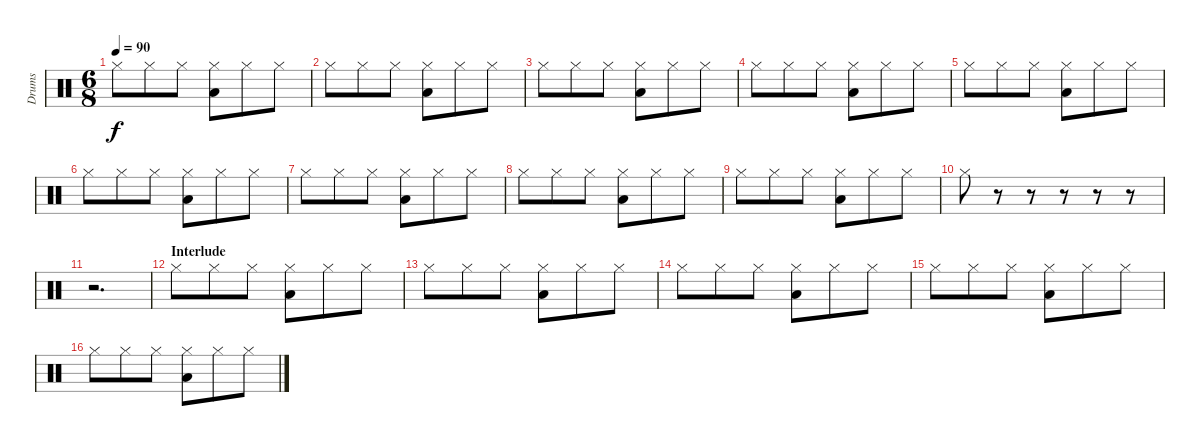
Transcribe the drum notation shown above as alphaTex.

\track ("Drums" "Drums") {instrument percussion}
\staff {score}
\articulation defaults
\ts (6 8)
\tempo 90
\clef neutral
\ks c "Hi-Hat (closed)".8{dy f} "Hi-Hat (closed)".8 "Hi-Hat (closed)".8
("Hi-Hat (closed)" "Low Floor Tom (hit)").8 "Hi-Hat (closed)".8 "Hi-Hat (closed)".8 |
"Hi-Hat (closed)".8 "Hi-Hat (closed)".8 "Hi-Hat (closed)".8 ("Hi-Hat (closed)" "Low Floor Tom (hit)").8 "Hi-Hat (closed)".8 "Hi-Hat (closed)".8 |
"Hi-Hat (closed)".8 "Hi-Hat (closed)".8 "Hi-Hat (closed)".8 ("Hi-Hat (closed)" "Low Floor Tom (hit)").8 "Hi-Hat (closed)".8 "Hi-Hat (closed)".8 |
"Hi-Hat (closed)".8 "Hi-Hat (closed)".8 "Hi-Hat (closed)".8 ("Hi-Hat (closed)" "Low Floor Tom (hit)").8 "Hi-Hat (closed)".8 "Hi-Hat (closed)".8 |
"Hi-Hat (closed)".8 "Hi-Hat (closed)".8 "Hi-Hat (closed)".8 ("Hi-Hat (closed)" "Low Floor Tom (hit)").8 "Hi-Hat (closed)".8 "Hi-Hat (closed)".8 |
"Hi-Hat (closed)".8 "Hi-Hat (closed)".8 "Hi-Hat (closed)".8 ("Hi-Hat (closed)" "Low Floor Tom (hit)").8 "Hi-Hat (closed)".8 "Hi-Hat (closed)".8 |
"Hi-Hat (closed)".8 "Hi-Hat (closed)".8 "Hi-Hat (closed)".8 ("Hi-Hat (closed)" "Low Floor Tom (hit)").8 "Hi-Hat (closed)".8 "Hi-Hat (closed)".8 |
"Hi-Hat (closed)".8 "Hi-Hat (closed)".8 "Hi-Hat (closed)".8 ("Hi-Hat (closed)" "Low Floor Tom (hit)").8 "Hi-Hat (closed)".8 "Hi-Hat (closed)".8 |
"Hi-Hat (closed)".8 "Hi-Hat (closed)".8 "Hi-Hat (closed)".8 ("Hi-Hat (closed)" "Low Floor Tom (hit)").8 "Hi-Hat (closed)".8 "Hi-Hat (closed)".8 |
"Hi-Hat (closed)".8 r.8 r.8 r.8 r.8 r.8 |
r.2{d} |
\section ("" "Interlude")
"Hi-Hat (closed)".8 "Hi-Hat (closed)".8 "Hi-Hat (closed)".8 ("Hi-Hat (closed)" "Low Floor Tom (hit)").8 "Hi-Hat (closed)".8 "Hi-Hat (closed)".8 |
"Hi-Hat (closed)".8 "Hi-Hat (closed)".8 "Hi-Hat (closed)".8 ("Hi-Hat (closed)" "Low Floor Tom (hit)").8 "Hi-Hat (closed)".8 "Hi-Hat (closed)".8 |
"Hi-Hat (closed)".8 "Hi-Hat (closed)".8 "Hi-Hat (closed)".8 ("Hi-Hat (closed)" "Low Floor Tom (hit)").8 "Hi-Hat (closed)".8 "Hi-Hat (closed)".8 |
"Hi-Hat (closed)".8 "Hi-Hat (closed)".8 "Hi-Hat (closed)".8 ("Hi-Hat (closed)" "Low Floor Tom (hit)").8 "Hi-Hat (closed)".8 "Hi-Hat (closed)".8 |
"Hi-Hat (closed)".8 "Hi-Hat (closed)".8 "Hi-Hat (closed)".8 ("Hi-Hat (closed)" "Low Floor Tom (hit)").8 "Hi-Hat (closed)".8 "Hi-Hat (closed)".8
